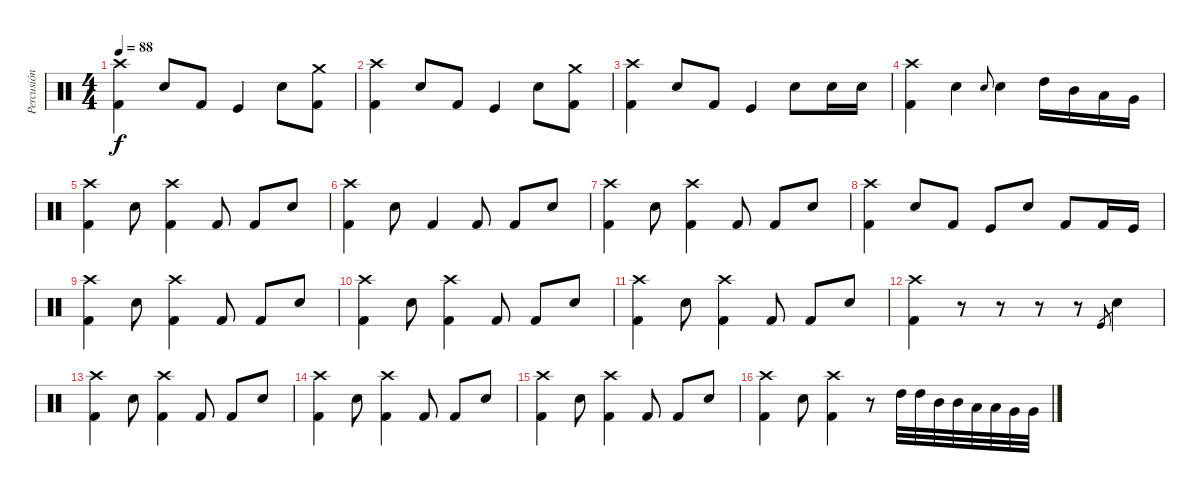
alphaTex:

\track ("Percusión" "Percusión") {instrument percussion}
\staff {score}
\articulation defaults
\ts (4 4)
\tempo 88
\clef neutral
\ks c
("Crash high (hit)" "Kick (hit) 2").4{dy f} "Snare (hit) 2".8 "Kick (hit) 2".8 "Kick (hit)".4 "Snare (hit) 2".8 ("Crash medium (hit)" "Kick (hit) 2").8 |
("Crash high (hit)" "Kick (hit) 2").4 "Snare (hit) 2".8 "Kick (hit) 2".8 "Kick (hit)".4 "Snare (hit) 2".8 ("Crash medium (hit)" "Kick (hit) 2").8 |
("Crash high (hit)" "Kick (hit) 2").4 "Snare (hit) 2".8 "Kick (hit) 2".8 "Kick (hit)".4 "Snare (hit) 2".8 "Snare (hit) 2".16 "Snare (hit) 2".16 |
("Crash high (hit)" "Kick (hit) 2").4 "Snare (hit) 2".4 "Electric Snare (hit)".8{gr onbeat} "Electric Snare (hit)".4 "High Tom (hit)".16 "Mid Tom (hit)".16 "Low Tom (hit)".16 "Very Low Tom (hit)".16 |
("Crash high (hit)" "Kick (hit) 2").4 "Snare (hit) 2".8 ("Crash high (hit)" "Kick (hit) 2").4 "Kick (hit) 2".8 "Kick (hit) 2".8 "Snare (hit) 2".8 |
("Crash high (hit)" "Kick (hit) 2").4 "Snare (hit) 2".8 "Kick (hit) 2".4 "Kick (hit) 2".8 "Kick (hit) 2".8 "Snare (hit) 2".8 |
("Crash high (hit)" "Kick (hit) 2").4 "Snare (hit) 2".8 ("Crash high (hit)" "Kick (hit) 2").4 "Kick (hit) 2".8 "Kick (hit) 2".8 "Snare (hit) 2".8 |
("Crash high (hit)" "Kick (hit) 2").4 "Snare (hit) 2".8 "Kick (hit) 2".8 "Kick (hit)".8 "Snare (hit) 2".8 "Kick (hit) 2".8 "Kick (hit) 2".16 "Kick (hit)".16 |
("Crash high (hit)" "Kick (hit) 2").4 "Snare (hit) 2".8 ("Crash high (hit)" "Kick (hit) 2").4 "Kick (hit) 2".8 "Kick (hit) 2".8 "Snare (hit) 2".8 |
("Crash high (hit)" "Kick (hit) 2").4 "Snare (hit) 2".8 ("Crash high (hit)" "Kick (hit) 2").4 "Kick (hit) 2".8 "Kick (hit) 2".8 "Snare (hit) 2".8 |
("Crash high (hit)" "Kick (hit) 2").4 "Snare (hit) 2".8 ("Crash high (hit)" "Kick (hit) 2").4 "Kick (hit) 2".8 "Kick (hit) 2".8 "Snare (hit) 2".8 |
("Crash high (hit)" "Kick (hit) 2").4 r.8 r.8 r.8 r.8 "Kick (hit)".8{gr} "Snare (hit) 2".4 |
("Crash high (hit)" "Kick (hit) 2").4 "Snare (hit) 2".8 ("Crash high (hit)" "Kick (hit) 2").4 "Kick (hit) 2".8 "Kick (hit) 2".8 "Snare (hit) 2".8 |
("Crash high (hit)" "Kick (hit) 2").4 "Snare (hit) 2".8 ("Crash high (hit)" "Kick (hit) 2").4 "Kick (hit) 2".8 "Kick (hit) 2".8 "Snare (hit) 2".8 |
("Crash high (hit)" "Kick (hit) 2").4 "Snare (hit) 2".8 ("Crash high (hit)" "Kick (hit) 2").4 "Kick (hit) 2".8 "Kick (hit) 2".8 "Snare (hit) 2".8 |
("Crash high (hit)" "Kick (hit) 2").4 "Snare (hit) 2".8 ("Crash high (hit)" "Kick (hit) 2").4 r.8 "High Tom (hit)".32 "High Tom (hit)".32 "Mid Tom (hit)".32 "Mid Tom (hit)".32 "Low Tom (hit)".32 "Low Tom (hit)".32 "Very Low Tom (hit)".32 "Very Low Tom (hit)".32
